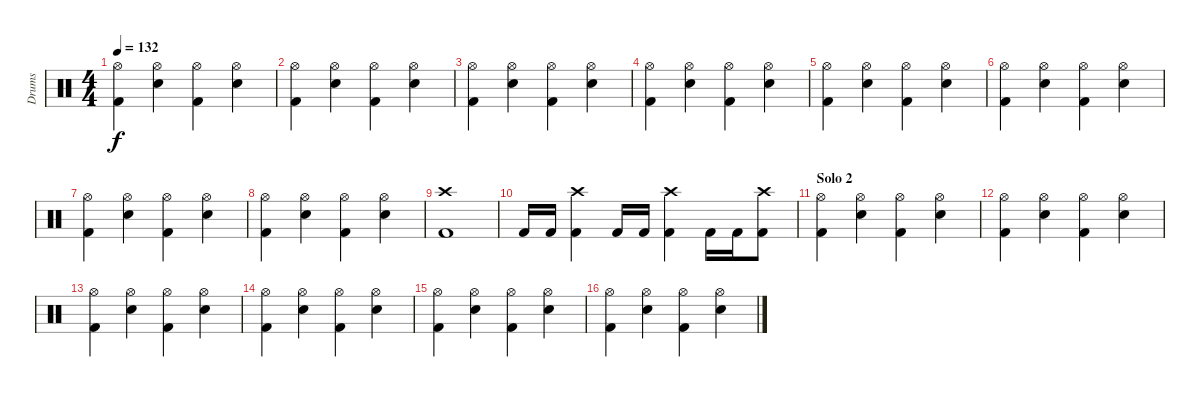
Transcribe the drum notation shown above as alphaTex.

\track ("Drums" "Drums") {instrument percussion}
\staff {score}
\articulation defaults
\ts (4 4)
\tempo 132
\clef neutral
\ks c
("Kick (hit) 2" "Hi-Hat (open)").4{dy f} ("Snare (hit) 2" "Hi-Hat (open)").4 ("Kick (hit) 2" "Hi-Hat (open)").4 ("Snare (hit) 2" "Hi-Hat (open)").4 |
("Kick (hit) 2" "Hi-Hat (open)").4 ("Snare (hit) 2" "Hi-Hat (open)").4 ("Kick (hit) 2" "Hi-Hat (open)").4 ("Snare (hit) 2" "Hi-Hat (open)").4 |
("Kick (hit) 2" "Hi-Hat (open)").4 ("Snare (hit) 2" "Hi-Hat (open)").4 ("Kick (hit) 2" "Hi-Hat (open)").4 ("Snare (hit) 2" "Hi-Hat (open)").4 |
("Kick (hit) 2" "Hi-Hat (open)").4 ("Snare (hit) 2" "Hi-Hat (open)").4 ("Kick (hit) 2" "Hi-Hat (open)").4 ("Snare (hit) 2" "Hi-Hat (open)").4 |
("Kick (hit) 2" "Hi-Hat (open)").4 ("Snare (hit) 2" "Hi-Hat (open)").4 ("Kick (hit) 2" "Hi-Hat (open)").4 ("Snare (hit) 2" "Hi-Hat (open)").4 |
("Kick (hit) 2" "Hi-Hat (open)").4 ("Snare (hit) 2" "Hi-Hat (open)").4 ("Kick (hit) 2" "Hi-Hat (open)").4 ("Snare (hit) 2" "Hi-Hat (open)").4 |
("Kick (hit) 2" "Hi-Hat (open)").4 ("Snare (hit) 2" "Hi-Hat (open)").4 ("Kick (hit) 2" "Hi-Hat (open)").4 ("Snare (hit) 2" "Hi-Hat (open)").4 |
("Kick (hit) 2" "Hi-Hat (open)").4 ("Snare (hit) 2" "Hi-Hat (open)").4 ("Kick (hit) 2" "Hi-Hat (open)").4 ("Snare (hit) 2" "Hi-Hat (open)").4 |
("Kick (hit) 2" "Crash high (hit)").1 |
"Kick (hit) 2".16 "Kick (hit) 2".16 ("Kick (hit) 2" "Crash high (hit)").4 "Kick (hit) 2".16 "Kick (hit) 2".16 ("Kick (hit) 2" "Crash high (hit)").4 "Kick (hit) 2".16 "Kick (hit) 2".16 ("Kick (hit) 2" "Crash high (hit)").8 |
\section ("" "Solo 2")
("Kick (hit) 2" "Hi-Hat (open)").4 ("Snare (hit) 2" "Hi-Hat (open)").4 ("Kick (hit) 2" "Hi-Hat (open)").4 ("Snare (hit) 2" "Hi-Hat (open)").4 |
("Kick (hit) 2" "Hi-Hat (open)").4 ("Snare (hit) 2" "Hi-Hat (open)").4 ("Kick (hit) 2" "Hi-Hat (open)").4 ("Snare (hit) 2" "Hi-Hat (open)").4 |
("Kick (hit) 2" "Hi-Hat (open)").4 ("Snare (hit) 2" "Hi-Hat (open)").4 ("Kick (hit) 2" "Hi-Hat (open)").4 ("Snare (hit) 2" "Hi-Hat (open)").4 |
("Kick (hit) 2" "Hi-Hat (open)").4 ("Snare (hit) 2" "Hi-Hat (open)").4 ("Kick (hit) 2" "Hi-Hat (open)").4 ("Snare (hit) 2" "Hi-Hat (open)").4 |
("Kick (hit) 2" "Hi-Hat (open)").4 ("Snare (hit) 2" "Hi-Hat (open)").4 ("Kick (hit) 2" "Hi-Hat (open)").4 ("Snare (hit) 2" "Hi-Hat (open)").4 |
("Kick (hit) 2" "Hi-Hat (open)").4 ("Snare (hit) 2" "Hi-Hat (open)").4 ("Kick (hit) 2" "Hi-Hat (open)").4 ("Snare (hit) 2" "Hi-Hat (open)").4
